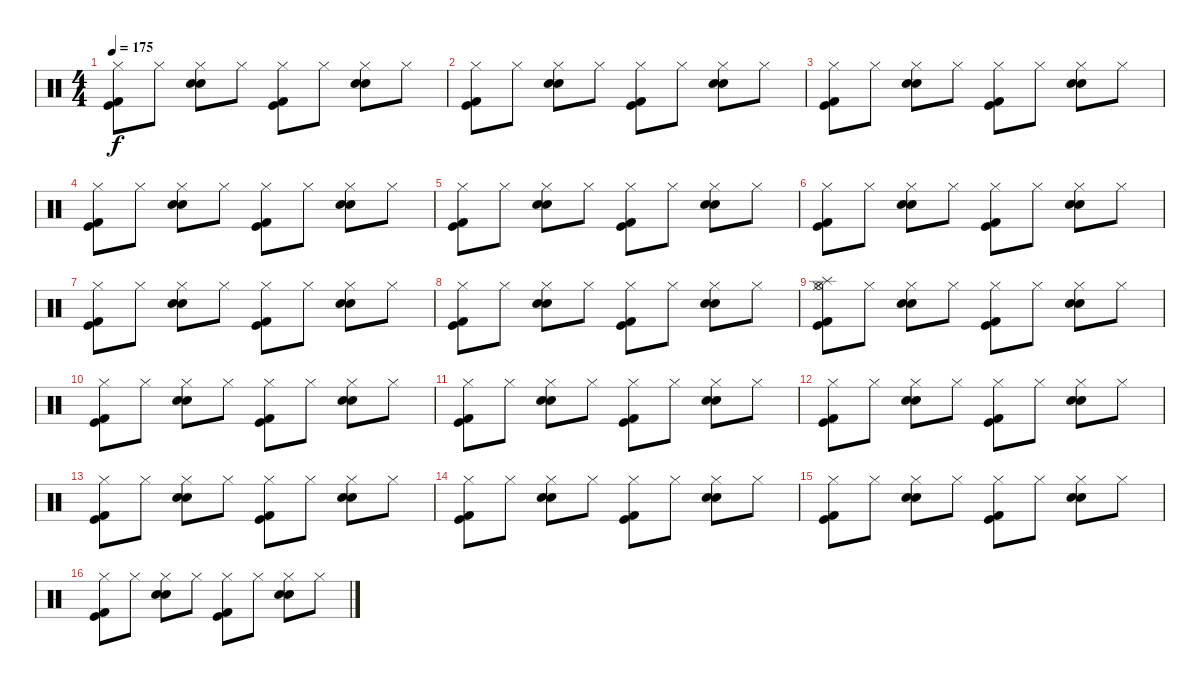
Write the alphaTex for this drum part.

\track "" {instrument percussion}
\staff {score}
\articulation defaults
\ts (4 4)
\tempo 175
\clef neutral
\ks c
("Kick (hit) 2" "Kick (hit)" "Hi-Hat (closed)").8{dy f} "Hi-Hat (closed)".8 ("Electric Snare (hit)" "Snare (hit) 2" "Hi-Hat (closed)").8 "Hi-Hat (closed)".8 ("Hi-Hat (closed)" "Kick (hit)" "Kick (hit) 2").8 "Hi-Hat (closed)".8 ("Electric Snare (hit)" "Snare (hit) 2" "Hi-Hat (closed)").8 "Hi-Hat (closed)".8 |
("Hi-Hat (closed)" "Kick (hit)" "Kick (hit) 2").8 "Hi-Hat (closed)".8 ("Electric Snare (hit)" "Snare (hit) 2" "Hi-Hat (closed)").8 "Hi-Hat (closed)".8 ("Hi-Hat (closed)" "Kick (hit)" "Kick (hit) 2").8 "Hi-Hat (closed)".8 ("Electric Snare (hit)" "Snare (hit) 2" "Hi-Hat (closed)").8 "Hi-Hat (closed)".8 |
("Kick (hit) 2" "Kick (hit)" "Hi-Hat (closed)").8 "Hi-Hat (closed)".8 ("Electric Snare (hit)" "Snare (hit) 2" "Hi-Hat (closed)").8 "Hi-Hat (closed)".8 ("Hi-Hat (closed)" "Kick (hit)" "Kick (hit) 2").8 "Hi-Hat (closed)".8 ("Electric Snare (hit)" "Snare (hit) 2" "Hi-Hat (closed)").8 "Hi-Hat (closed)".8 |
("Hi-Hat (closed)" "Kick (hit)" "Kick (hit) 2").8 "Hi-Hat (closed)".8 ("Electric Snare (hit)" "Snare (hit) 2" "Hi-Hat (closed)").8 "Hi-Hat (closed)".8 ("Hi-Hat (closed)" "Kick (hit)" "Kick (hit) 2").8 "Hi-Hat (closed)".8 ("Electric Snare (hit)" "Snare (hit) 2" "Hi-Hat (closed)").8 "Hi-Hat (closed)".8 |
("Hi-Hat (closed)" "Kick (hit)" "Kick (hit) 2").8 "Hi-Hat (closed)".8 ("Electric Snare (hit)" "Snare (hit) 2" "Hi-Hat (closed)").8 "Hi-Hat (closed)".8 ("Hi-Hat (closed)" "Kick (hit)" "Kick (hit) 2").8 "Hi-Hat (closed)".8 ("Electric Snare (hit)" "Snare (hit) 2" "Hi-Hat (closed)").8 "Hi-Hat (closed)".8 |
("Hi-Hat (closed)" "Kick (hit)" "Kick (hit) 2").8 "Hi-Hat (closed)".8 ("Electric Snare (hit)" "Snare (hit) 2" "Hi-Hat (closed)").8 "Hi-Hat (closed)".8 ("Hi-Hat (closed)" "Kick (hit)" "Kick (hit) 2").8 "Hi-Hat (closed)".8 ("Electric Snare (hit)" "Snare (hit) 2" "Hi-Hat (closed)").8 "Hi-Hat (closed)".8 |
("Hi-Hat (closed)" "Kick (hit)" "Kick (hit) 2").8 "Hi-Hat (closed)".8 ("Electric Snare (hit)" "Snare (hit) 2" "Hi-Hat (closed)").8 "Hi-Hat (closed)".8 ("Hi-Hat (closed)" "Kick (hit)" "Kick (hit) 2").8 "Hi-Hat (closed)".8 ("Electric Snare (hit)" "Snare (hit) 2" "Hi-Hat (closed)").8 "Hi-Hat (closed)".8 |
("Hi-Hat (closed)" "Kick (hit)" "Kick (hit) 2").8 "Hi-Hat (closed)".8 ("Electric Snare (hit)" "Snare (hit) 2" "Hi-Hat (closed)").8 "Hi-Hat (closed)".8 ("Hi-Hat (closed)" "Kick (hit)" "Kick (hit) 2").8 "Hi-Hat (closed)".8 ("Electric Snare (hit)" "Snare (hit) 2" "Hi-Hat (closed)").8 "Hi-Hat (closed)".8 |
("Hi-Hat (open)" "Splash (hit)" "Hi-Hat (closed)" "Kick (hit)" "Kick (hit) 2").8 "Hi-Hat (closed)".8 ("Electric Snare (hit)" "Snare (hit) 2" "Hi-Hat (closed)").8 "Hi-Hat (closed)".8 ("Hi-Hat (closed)" "Kick (hit)" "Kick (hit) 2").8 "Hi-Hat (closed)".8 ("Electric Snare (hit)" "Snare (hit) 2" "Hi-Hat (closed)").8 "Hi-Hat (closed)".8 |
("Hi-Hat (closed)" "Kick (hit)" "Kick (hit) 2").8 "Hi-Hat (closed)".8 ("Electric Snare (hit)" "Snare (hit) 2" "Hi-Hat (closed)").8 "Hi-Hat (closed)".8 ("Hi-Hat (closed)" "Kick (hit)" "Kick (hit) 2").8 "Hi-Hat (closed)".8 ("Electric Snare (hit)" "Snare (hit) 2" "Hi-Hat (closed)").8 "Hi-Hat (closed)".8 |
("Hi-Hat (closed)" "Kick (hit)" "Kick (hit) 2").8 "Hi-Hat (closed)".8 ("Electric Snare (hit)" "Snare (hit) 2" "Hi-Hat (closed)").8 "Hi-Hat (closed)".8 ("Hi-Hat (closed)" "Kick (hit)" "Kick (hit) 2").8 "Hi-Hat (closed)".8 ("Electric Snare (hit)" "Snare (hit) 2" "Hi-Hat (closed)").8 "Hi-Hat (closed)".8 |
("Hi-Hat (closed)" "Kick (hit)" "Kick (hit) 2").8 "Hi-Hat (closed)".8 ("Electric Snare (hit)" "Snare (hit) 2" "Hi-Hat (closed)").8 "Hi-Hat (closed)".8 ("Hi-Hat (closed)" "Kick (hit)" "Kick (hit) 2").8 "Hi-Hat (closed)".8 ("Electric Snare (hit)" "Snare (hit) 2" "Hi-Hat (closed)").8 "Hi-Hat (closed)".8 |
("Kick (hit) 2" "Kick (hit)" "Hi-Hat (closed)").8 "Hi-Hat (closed)".8 ("Electric Snare (hit)" "Snare (hit) 2" "Hi-Hat (closed)").8 "Hi-Hat (closed)".8 ("Hi-Hat (closed)" "Kick (hit)" "Kick (hit) 2").8 "Hi-Hat (closed)".8 ("Electric Snare (hit)" "Snare (hit) 2" "Hi-Hat (closed)").8 "Hi-Hat (closed)".8 |
("Hi-Hat (closed)" "Kick (hit)" "Kick (hit) 2").8 "Hi-Hat (closed)".8 ("Electric Snare (hit)" "Snare (hit) 2" "Hi-Hat (closed)").8 "Hi-Hat (closed)".8 ("Hi-Hat (closed)" "Kick (hit)" "Kick (hit) 2").8 "Hi-Hat (closed)".8 ("Electric Snare (hit)" "Snare (hit) 2" "Hi-Hat (closed)").8 "Hi-Hat (closed)".8 |
("Kick (hit) 2" "Kick (hit)" "Hi-Hat (closed)").8 "Hi-Hat (closed)".8 ("Electric Snare (hit)" "Snare (hit) 2" "Hi-Hat (closed)").8 "Hi-Hat (closed)".8 ("Hi-Hat (closed)" "Kick (hit)" "Kick (hit) 2").8 "Hi-Hat (closed)".8 ("Electric Snare (hit)" "Snare (hit) 2" "Hi-Hat (closed)").8 "Hi-Hat (closed)".8 |
("Hi-Hat (closed)" "Kick (hit)" "Kick (hit) 2").8 "Hi-Hat (closed)".8 ("Electric Snare (hit)" "Snare (hit) 2" "Hi-Hat (closed)").8 "Hi-Hat (closed)".8 ("Hi-Hat (closed)" "Kick (hit)" "Kick (hit) 2").8 "Hi-Hat (closed)".8 ("Electric Snare (hit)" "Snare (hit) 2" "Hi-Hat (closed)").8 "Hi-Hat (closed)".8
